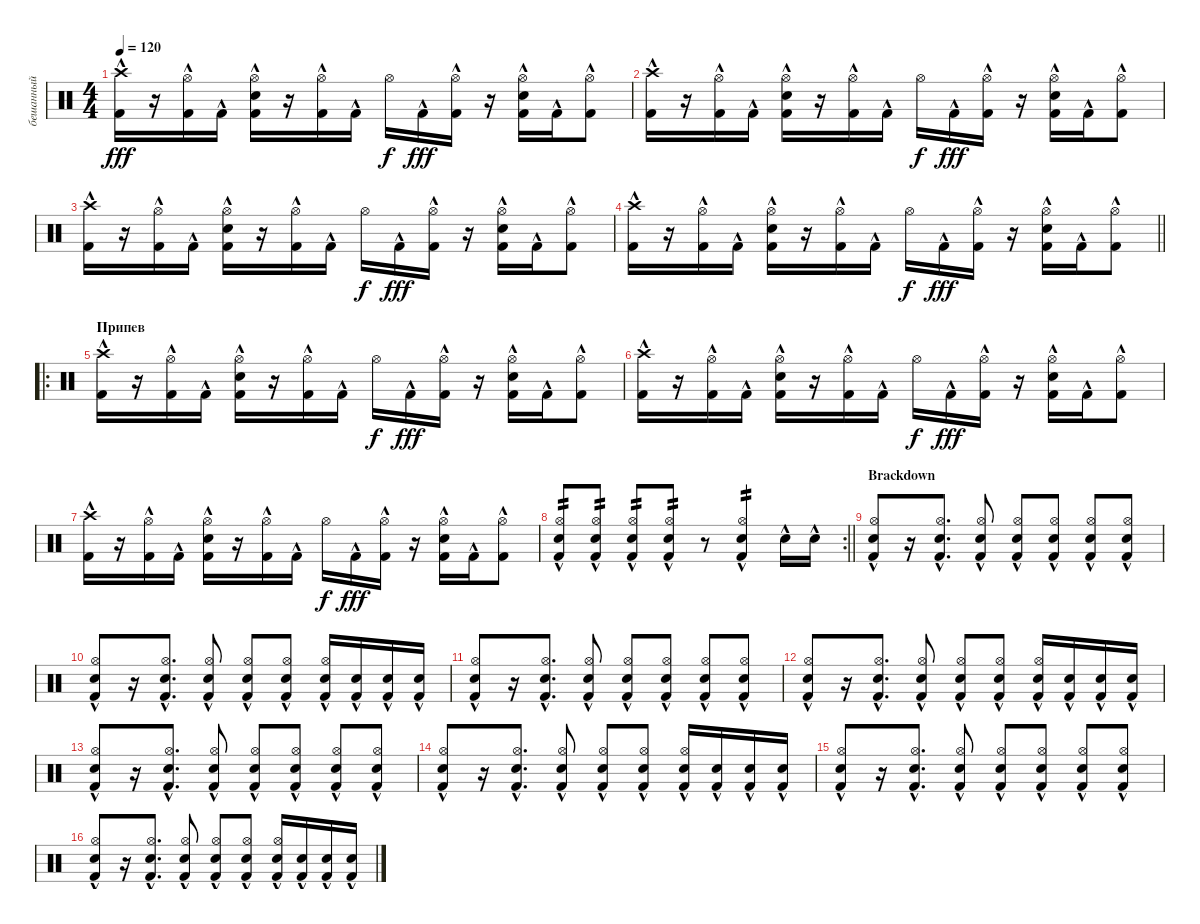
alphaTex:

\track ("бешанный" "бешанный") {instrument percussion}
\staff {score}
\articulation defaults
\ts (4 4)
\tempo 120
\clef neutral
\ks c
("Kick (hit) 2"{hac} "Crash high (hit)"{hac}).16{dy fff} r.16 ("Kick (hit) 2"{hac} "Hi-Hat (open)").16 "Kick (hit) 2"{hac}.16 ("Kick (hit) 2"{hac} "Snare (hit) 2"{hac} "Hi-Hat (open)").16 r.16 ("Kick (hit) 2"{hac} "Hi-Hat (open)").16 "Kick (hit) 2"{hac}.16 "Hi-Hat (open)".16{dy f} "Kick (hit) 2"{hac}.16{dy fff} ("Kick (hit) 2"{hac} "Hi-Hat (open)").16 r.16 ("Kick (hit) 2"{hac} "Snare (hit) 2"{hac} "Hi-Hat (open)").16 "Kick (hit) 2"{hac}.16 ("Kick (hit) 2"{hac} "Hi-Hat (open)").8 |
("Kick (hit) 2"{hac} "Crash high (hit)"{hac}).16 r.16 ("Kick (hit) 2"{hac} "Hi-Hat (open)").16 "Kick (hit) 2"{hac}.16 ("Kick (hit) 2"{hac} "Snare (hit) 2"{hac} "Hi-Hat (open)").16 r.16 ("Kick (hit) 2"{hac} "Hi-Hat (open)").16 "Kick (hit) 2"{hac}.16 "Hi-Hat (open)".16{dy f} "Kick (hit) 2"{hac}.16{dy fff} ("Kick (hit) 2"{hac} "Hi-Hat (open)").16 r.16 ("Kick (hit) 2"{hac} "Snare (hit) 2"{hac} "Hi-Hat (open)").16 "Kick (hit) 2"{hac}.16 ("Kick (hit) 2"{hac} "Hi-Hat (open)").8 |
("Kick (hit) 2"{hac} "Crash high (hit)"{hac}).16 r.16 ("Kick (hit) 2"{hac} "Hi-Hat (open)").16 "Kick (hit) 2"{hac}.16 ("Kick (hit) 2"{hac} "Snare (hit) 2"{hac} "Hi-Hat (open)").16 r.16 ("Kick (hit) 2"{hac} "Hi-Hat (open)").16 "Kick (hit) 2"{hac}.16 "Hi-Hat (open)".16{dy f} "Kick (hit) 2"{hac}.16{dy fff} ("Kick (hit) 2"{hac} "Hi-Hat (open)").16 r.16 ("Kick (hit) 2"{hac} "Snare (hit) 2"{hac} "Hi-Hat (open)").16 "Kick (hit) 2"{hac}.16 ("Kick (hit) 2"{hac} "Hi-Hat (open)").8 |
\barLineRight lightlight
("Kick (hit) 2"{hac} "Crash high (hit)"{hac}).16 r.16 ("Kick (hit) 2"{hac} "Hi-Hat (open)").16 "Kick (hit) 2"{hac}.16 ("Kick (hit) 2"{hac} "Snare (hit) 2"{hac} "Hi-Hat (open)").16 r.16 ("Kick (hit) 2"{hac} "Hi-Hat (open)").16 "Kick (hit) 2"{hac}.16 "Hi-Hat (open)".16{dy f} "Kick (hit) 2"{hac}.16{dy fff} ("Kick (hit) 2"{hac} "Hi-Hat (open)").16 r.16 ("Kick (hit) 2"{hac} "Snare (hit) 2"{hac} "Hi-Hat (open)").16 "Kick (hit) 2"{hac}.16 ("Kick (hit) 2"{hac} "Hi-Hat (open)").8 |
\ro
\section ("" "Припев")
("Kick (hit) 2"{hac} "Crash high (hit)"{hac}).16 r.16 ("Kick (hit) 2"{hac} "Hi-Hat (open)").16 "Kick (hit) 2"{hac}.16 ("Kick (hit) 2"{hac} "Snare (hit) 2"{hac} "Hi-Hat (open)").16 r.16 ("Kick (hit) 2"{hac} "Hi-Hat (open)").16 "Kick (hit) 2"{hac}.16 "Hi-Hat (open)".16{dy f} "Kick (hit) 2"{hac}.16{dy fff} ("Kick (hit) 2"{hac} "Hi-Hat (open)").16 r.16 ("Kick (hit) 2"{hac} "Snare (hit) 2"{hac} "Hi-Hat (open)").16 "Kick (hit) 2"{hac}.16 ("Kick (hit) 2"{hac} "Hi-Hat (open)").8 |
("Kick (hit) 2"{hac} "Crash high (hit)"{hac}).16 r.16 ("Kick (hit) 2"{hac} "Hi-Hat (open)").16 "Kick (hit) 2"{hac}.16 ("Kick (hit) 2"{hac} "Snare (hit) 2"{hac} "Hi-Hat (open)").16 r.16 ("Kick (hit) 2"{hac} "Hi-Hat (open)").16 "Kick (hit) 2"{hac}.16 "Hi-Hat (open)".16{dy f} "Kick (hit) 2"{hac}.16{dy fff} ("Kick (hit) 2"{hac} "Hi-Hat (open)").16 r.16 ("Kick (hit) 2"{hac} "Snare (hit) 2"{hac} "Hi-Hat (open)").16 "Kick (hit) 2"{hac}.16 ("Kick (hit) 2"{hac} "Hi-Hat (open)").8 |
("Kick (hit) 2"{hac} "Crash high (hit)"{hac}).16 r.16 ("Kick (hit) 2"{hac} "Hi-Hat (open)").16 "Kick (hit) 2"{hac}.16 ("Kick (hit) 2"{hac} "Snare (hit) 2"{hac} "Hi-Hat (open)").16 r.16 ("Kick (hit) 2"{hac} "Hi-Hat (open)").16 "Kick (hit) 2"{hac}.16 "Hi-Hat (open)".16{dy f} "Kick (hit) 2"{hac}.16{dy fff} ("Kick (hit) 2"{hac} "Hi-Hat (open)").16 r.16 ("Kick (hit) 2"{hac} "Snare (hit) 2"{hac} "Hi-Hat (open)").16 "Kick (hit) 2"{hac}.16 ("Kick (hit) 2"{hac} "Hi-Hat (open)").8 |
\rc 2
\barLineRight lightlight
("Kick (hit) 2"{hac} "Snare (hit) 2"{hac} "Hi-Hat (open)").8{tp 2} ("Kick (hit) 2"{hac} "Snare (hit) 2"{hac} "Hi-Hat (open)").8{tp 2} ("Kick (hit) 2"{hac} "Snare (hit) 2"{hac} "Hi-Hat (open)").8{tp 2} ("Kick (hit) 2"{hac} "Snare (hit) 2"{hac} "Hi-Hat (open)").8{tp 2} r.8 ("Kick (hit) 2"{hac} "Snare (hit) 2"{hac} "Hi-Hat (open)").4{tp 2} "Snare (hit) 2"{hac}.16 "Snare (hit) 2"{hac}.16 |
\section ("" "Brackdown")
("Kick (hit) 2"{hac} "Snare (hit) 2"{hac} "Hi-Hat (open)").8 r.16 ("Kick (hit) 2"{hac} "Snare (hit) 2"{hac} "Hi-Hat (open)").8{d} ("Kick (hit) 2"{hac} "Snare (hit) 2"{hac} "Hi-Hat (open)").8 ("Kick (hit) 2"{hac} "Snare (hit) 2"{hac} "Hi-Hat (open)").8 ("Kick (hit) 2"{hac} "Snare (hit) 2"{hac} "Hi-Hat (open)").8 ("Kick (hit) 2"{hac} "Snare (hit) 2"{hac} "Hi-Hat (open)").8 ("Kick (hit) 2"{hac} "Snare (hit) 2"{hac} "Hi-Hat (open)").8 |
("Kick (hit) 2"{hac} "Snare (hit) 2"{hac} "Hi-Hat (open)").8 r.16 ("Kick (hit) 2"{hac} "Snare (hit) 2"{hac} "Hi-Hat (open)").8{d} ("Kick (hit) 2"{hac} "Snare (hit) 2"{hac} "Hi-Hat (open)").8 ("Kick (hit) 2"{hac} "Snare (hit) 2"{hac} "Hi-Hat (open)").8 ("Kick (hit) 2"{hac} "Snare (hit) 2"{hac} "Hi-Hat (open)").8 ("Kick (hit) 2"{hac} "Snare (hit) 2"{hac} "Hi-Hat (open)").16 ("Kick (hit) 2"{hac} "Snare (hit) 2"{hac}).16 ("Kick (hit) 2"{hac} "Snare (hit) 2"{hac}).16 ("Kick (hit) 2"{hac} "Snare (hit) 2"{hac}).16 |
("Kick (hit) 2"{hac} "Snare (hit) 2"{hac} "Hi-Hat (open)").8 r.16 ("Kick (hit) 2"{hac} "Snare (hit) 2"{hac} "Hi-Hat (open)").8{d} ("Kick (hit) 2"{hac} "Snare (hit) 2"{hac} "Hi-Hat (open)").8 ("Kick (hit) 2"{hac} "Snare (hit) 2"{hac} "Hi-Hat (open)").8 ("Kick (hit) 2"{hac} "Snare (hit) 2"{hac} "Hi-Hat (open)").8 ("Kick (hit) 2"{hac} "Snare (hit) 2"{hac} "Hi-Hat (open)").8 ("Kick (hit) 2"{hac} "Snare (hit) 2"{hac} "Hi-Hat (open)").8 |
("Kick (hit) 2"{hac} "Snare (hit) 2"{hac} "Hi-Hat (open)").8 r.16 ("Kick (hit) 2"{hac} "Snare (hit) 2"{hac} "Hi-Hat (open)").8{d} ("Kick (hit) 2"{hac} "Snare (hit) 2"{hac} "Hi-Hat (open)").8 ("Kick (hit) 2"{hac} "Snare (hit) 2"{hac} "Hi-Hat (open)").8 ("Kick (hit) 2"{hac} "Snare (hit) 2"{hac} "Hi-Hat (open)").8 ("Kick (hit) 2"{hac} "Snare (hit) 2"{hac} "Hi-Hat (open)").16 ("Kick (hit) 2"{hac} "Snare (hit) 2"{hac}).16 ("Kick (hit) 2"{hac} "Snare (hit) 2"{hac}).16 ("Kick (hit) 2"{hac} "Snare (hit) 2"{hac}).16 |
("Kick (hit) 2"{hac} "Snare (hit) 2"{hac} "Hi-Hat (open)").8 r.16 ("Kick (hit) 2"{hac} "Snare (hit) 2"{hac} "Hi-Hat (open)").8{d} ("Kick (hit) 2"{hac} "Snare (hit) 2"{hac} "Hi-Hat (open)").8 ("Kick (hit) 2"{hac} "Snare (hit) 2"{hac} "Hi-Hat (open)").8 ("Kick (hit) 2"{hac} "Snare (hit) 2"{hac} "Hi-Hat (open)").8 ("Kick (hit) 2"{hac} "Snare (hit) 2"{hac} "Hi-Hat (open)").8 ("Kick (hit) 2"{hac} "Snare (hit) 2"{hac} "Hi-Hat (open)").8 |
("Kick (hit) 2"{hac} "Snare (hit) 2"{hac} "Hi-Hat (open)").8 r.16 ("Kick (hit) 2"{hac} "Snare (hit) 2"{hac} "Hi-Hat (open)").8{d} ("Kick (hit) 2"{hac} "Snare (hit) 2"{hac} "Hi-Hat (open)").8 ("Kick (hit) 2"{hac} "Snare (hit) 2"{hac} "Hi-Hat (open)").8 ("Kick (hit) 2"{hac} "Snare (hit) 2"{hac} "Hi-Hat (open)").8 ("Kick (hit) 2"{hac} "Snare (hit) 2"{hac} "Hi-Hat (open)").16 ("Kick (hit) 2"{hac} "Snare (hit) 2"{hac}).16 ("Kick (hit) 2"{hac} "Snare (hit) 2"{hac}).16 ("Kick (hit) 2"{hac} "Snare (hit) 2"{hac}).16 |
("Kick (hit) 2"{hac} "Snare (hit) 2"{hac} "Hi-Hat (open)").8 r.16 ("Kick (hit) 2"{hac} "Snare (hit) 2"{hac} "Hi-Hat (open)").8{d} ("Kick (hit) 2"{hac} "Snare (hit) 2"{hac} "Hi-Hat (open)").8 ("Kick (hit) 2"{hac} "Snare (hit) 2"{hac} "Hi-Hat (open)").8 ("Kick (hit) 2"{hac} "Snare (hit) 2"{hac} "Hi-Hat (open)").8 ("Kick (hit) 2"{hac} "Snare (hit) 2"{hac} "Hi-Hat (open)").8 ("Kick (hit) 2"{hac} "Snare (hit) 2"{hac} "Hi-Hat (open)").8 |
("Kick (hit) 2"{hac} "Snare (hit) 2"{hac} "Hi-Hat (open)").8 r.16 ("Kick (hit) 2"{hac} "Snare (hit) 2"{hac} "Hi-Hat (open)").8{d} ("Kick (hit) 2"{hac} "Snare (hit) 2"{hac} "Hi-Hat (open)").8 ("Kick (hit) 2"{hac} "Snare (hit) 2"{hac} "Hi-Hat (open)").8 ("Kick (hit) 2"{hac} "Snare (hit) 2"{hac} "Hi-Hat (open)").8 ("Kick (hit) 2"{hac} "Snare (hit) 2"{hac} "Hi-Hat (open)").16 ("Kick (hit) 2"{hac} "Snare (hit) 2"{hac}).16 ("Kick (hit) 2"{hac} "Snare (hit) 2"{hac}).16 ("Kick (hit) 2"{hac} "Snare (hit) 2"{hac}).16
